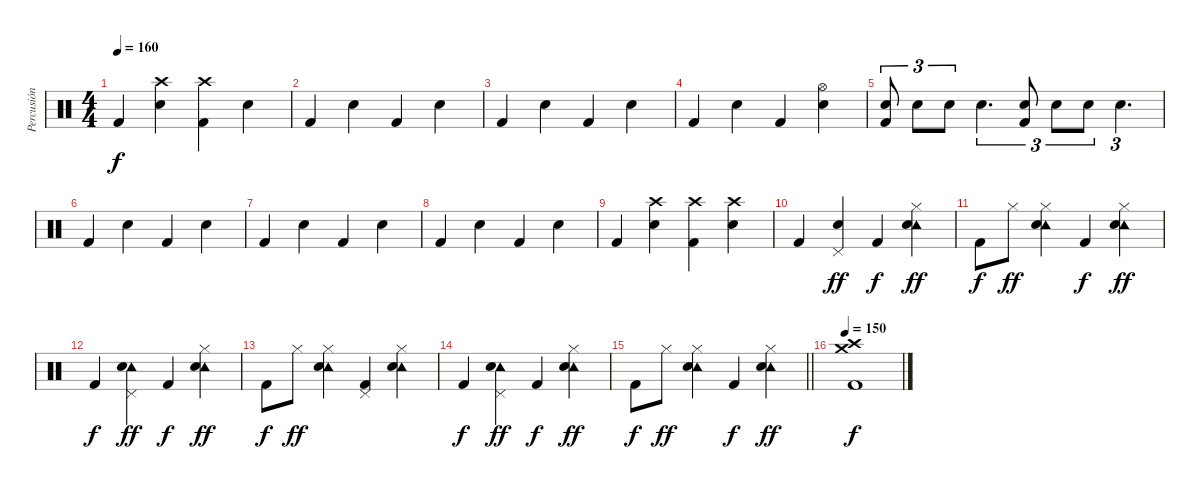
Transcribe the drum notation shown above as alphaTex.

\track ("Percusión" "Percusión") {instrument percussion}
\staff {score}
\articulation defaults
\ts (4 4)
\tempo 160
\clef neutral
\ks c "Kick (hit) 2".4{dy f}
("Crash high (hit)" "Electric Snare (hit)").4 ("Crash high (hit)" "Kick (hit) 2").4 "Electric Snare (hit)".4 |
"Kick (hit) 2".4 "Electric Snare (hit)".4 "Kick (hit) 2".4 "Electric Snare (hit)".4 |
"Kick (hit) 2".4 "Electric Snare (hit)".4 "Kick (hit) 2".4 "Electric Snare (hit)".4 |
"Kick (hit) 2".4 "Electric Snare (hit)".4 "Kick (hit) 2".4 ("Hi-Hat (open)" "Electric Snare (hit)").4 |
("Electric Snare (hit)" "Kick (hit) 2").8{tu (3 2) beam split} "Electric Snare (hit)".8{tu (3 2)} "Electric Snare (hit)".8{tu (3 2)} "Electric Snare (hit)".4{d tu (3 2)} ("Electric Snare (hit)" "Kick (hit) 2").8{tu (3 2) beam split} "Electric Snare (hit)".8{tu (3 2)} "Electric Snare (hit)".8{tu (3 2)} "Electric Snare (hit)".4{d tu (3 2)} |
"Kick (hit) 2".4 "Electric Snare (hit)".4 "Kick (hit) 2".4 "Electric Snare (hit)".4 |
"Kick (hit) 2".4 "Electric Snare (hit)".4 "Kick (hit) 2".4 "Electric Snare (hit)".4 |
"Kick (hit) 2".4 "Electric Snare (hit)".4 "Kick (hit) 2".4 "Electric Snare (hit)".4 |
"Kick (hit) 2".4 ("Crash high (hit)" "Electric Snare (hit)").4 ("Crash high (hit)" "Kick (hit) 2").4 ("Crash high (hit)" "Electric Snare (hit)").4 |
"Kick (hit) 2".4 ("Pedal Hi-Hat (hit)" "Electric Snare (hit)").4{dy ff} "Kick (hit) 2".4{dy f} ("Hi-Hat (closed)" "Tambourine (hit)" "Electric Snare (hit)").4{dy ff} |
"Kick (hit) 2".8{dy f} "Hi-Hat (closed)".8{dy ff} ("Hi-Hat (closed)" "Tambourine (hit)" "Electric Snare (hit)").4 "Kick (hit) 2".4{dy f} ("Hi-Hat (closed)" "Tambourine (hit)" "Electric Snare (hit)").4{dy ff} |
"Kick (hit) 2".4{dy f} ("Pedal Hi-Hat (hit)" "Tambourine (hit)" "Electric Snare (hit)").4{dy ff} "Kick (hit) 2".4{dy f} ("Hi-Hat (closed)" "Tambourine (hit)" "Electric Snare (hit)").4{dy ff} |
"Kick (hit) 2".8{dy f} "Hi-Hat (closed)".8{dy ff} ("Hi-Hat (closed)" "Tambourine (hit)" "Electric Snare (hit)").4 ("Pedal Hi-Hat (hit)" "Kick (hit) 2").4 ("Hi-Hat (closed)" "Tambourine (hit)" "Electric Snare (hit)").4 |
"Kick (hit) 2".4{dy f} ("Pedal Hi-Hat (hit)" "Tambourine (hit)" "Electric Snare (hit)").4{dy ff} "Kick (hit) 2".4{dy f} ("Hi-Hat (closed)" "Tambourine (hit)" "Electric Snare (hit)").4{dy ff} |
\barLineRight lightlight "Kick (hit) 2".8{dy f} "Hi-Hat (closed)".8{dy ff}
("Hi-Hat (closed)" "Tambourine (hit)" "Electric Snare (hit)").4 "Kick (hit) 2".4{dy f} ("Hi-Hat (closed)" "Tambourine (hit)" "Electric Snare (hit)").4{dy ff} |
\tempo 150
("Crash medium (hit)" "Crash high (hit)" "Kick (hit) 2").1{dy f}
